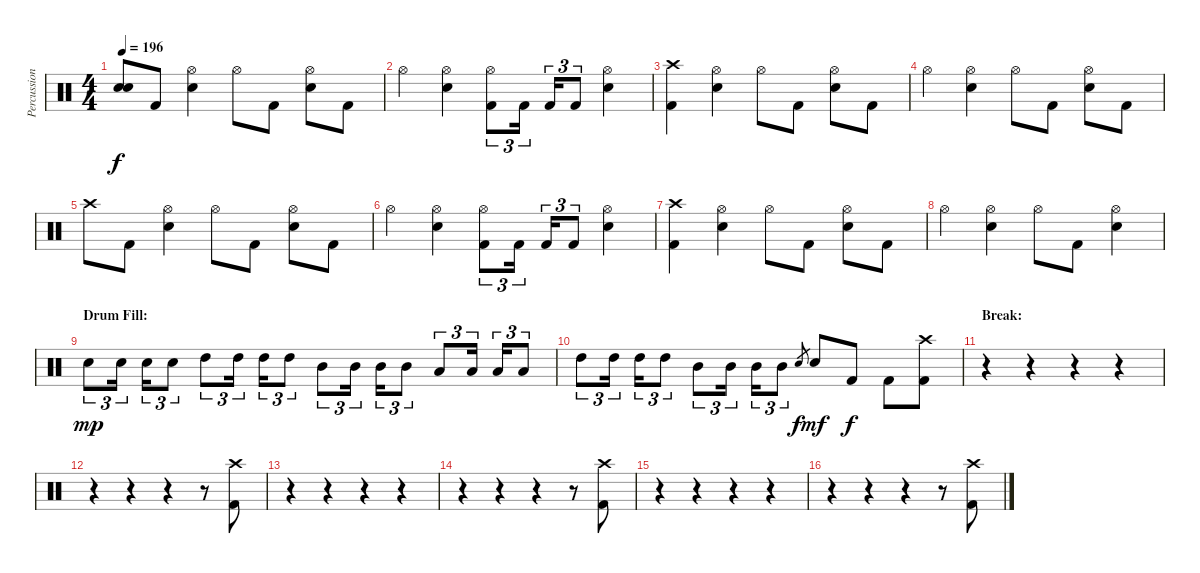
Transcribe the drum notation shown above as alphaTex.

\track ("Percussion" "Percussion") {instrument percussion}
\staff {score}
\articulation defaults
\ts (4 4)
\tempo 196
\clef neutral
\ks c
("Snare (hit)"{t} "Snare (hit)"{t}).8{dy f} "Kick (hit) 2".8 ("Hi-Hat (open)" "Snare (hit) 2").4 "Hi-Hat (open)".8 "Kick (hit) 2".8 ("Hi-Hat (open)" "Snare (hit) 2").8 "Kick (hit) 2".8 |
"Hi-Hat (open)".4 ("Hi-Hat (open)" "Snare (hit) 2").4 ("Hi-Hat (open)" "Kick (hit) 2").8{tu (3 2)} "Kick (hit) 2".16{tu (3 2)} "Kick (hit) 2".16{tu (3 2)} "Kick (hit) 2".8{tu (3 2)} ("Hi-Hat (open)" "Snare (hit) 2").4 |
("Crash high (hit)" "Kick (hit) 2").4 ("Hi-Hat (open)" "Snare (hit) 2").4 "Hi-Hat (open)".8 "Kick (hit) 2".8 ("Hi-Hat (open)" "Snare (hit) 2").8 "Kick (hit) 2".8 |
"Hi-Hat (open)".4 ("Hi-Hat (open)" "Snare (hit) 2").4 "Hi-Hat (open)".8 "Kick (hit) 2".8 ("Hi-Hat (open)" "Snare (hit) 2").8 "Kick (hit) 2".8 |
"Crash high (hit)".8 "Kick (hit) 2".8 ("Hi-Hat (open)" "Snare (hit) 2").4 "Hi-Hat (open)".8 "Kick (hit) 2".8 ("Hi-Hat (open)" "Snare (hit) 2").8 "Kick (hit) 2".8 |
"Hi-Hat (open)".4 ("Hi-Hat (open)" "Snare (hit) 2").4 ("Hi-Hat (open)" "Kick (hit) 2").8{tu (3 2)} "Kick (hit) 2".16{tu (3 2)} "Kick (hit) 2".16{tu (3 2)} "Kick (hit) 2".8{tu (3 2)} ("Hi-Hat (open)" "Snare (hit) 2").4 |
("Crash high (hit)" "Kick (hit) 2").4 ("Hi-Hat (open)" "Snare (hit) 2").4 "Hi-Hat (open)".8 "Kick (hit) 2".8 ("Hi-Hat (open)" "Snare (hit) 2").8 "Kick (hit) 2".8 |
"Hi-Hat (open)".4 ("Hi-Hat (open)" "Snare (hit) 2").4 "Hi-Hat (open)".8 "Kick (hit) 2".8 ("Hi-Hat (open)" "Snare (hit) 2").4 |
\section ("" "Drum Fill:")
"Snare (hit) 2".8{tu (3 2) dy mp} "Snare (hit) 2".16{tu (3 2)} "Snare (hit) 2".16{tu (3 2)} "Snare (hit) 2".8{tu (3 2)} "High Tom (hit)".8{tu (3 2)} "High Tom (hit)".16{tu (3 2)} "High Tom (hit)".16{tu (3 2)} "High Tom (hit)".8{tu (3 2)} "Mid Tom (hit)".8{tu (3 2)} "Mid Tom (hit)".16{tu (3 2)} "Mid Tom (hit)".16{tu (3 2)} "Mid Tom (hit)".8{tu (3 2)} "Low Tom (hit)".8{tu (3 2)} "Low Tom (hit)".16{tu (3 2)} "Low Tom (hit)".16{tu (3 2)} "Low Tom (hit)".8{tu (3 2)} |
"High Tom (hit)".8{tu (3 2)} "High Tom (hit)".16{tu (3 2)} "High Tom (hit)".16{tu (3 2)} "High Tom (hit)".8{tu (3 2)} "Mid Tom (hit)".8{tu (3 2)} "Mid Tom (hit)".16{tu (3 2)} "Mid Tom (hit)".16{tu (3 2)} "Mid Tom (hit)".8{tu (3 2)} "Snare (hit) 2".8{gr dy f} "Snare (hit) 2".8{dy mf} "Kick (hit) 2".8{dy f} "Kick (hit) 2".8 ("Crash high (hit)" "Kick (hit) 2").8 |
\section ("" "Break:")
r.4 r.4 r.4 r.4 |
r.4 r.4 r.4 r.8 ("Crash high (hit)" "Kick (hit) 2").8 |
r.4 r.4 r.4 r.4 |
r.4 r.4 r.4 r.8 ("Crash high (hit)" "Kick (hit) 2").8 |
r.4 r.4 r.4 r.4 |
r.4 r.4 r.4 r.8 ("Crash high (hit)" "Kick (hit) 2").8
